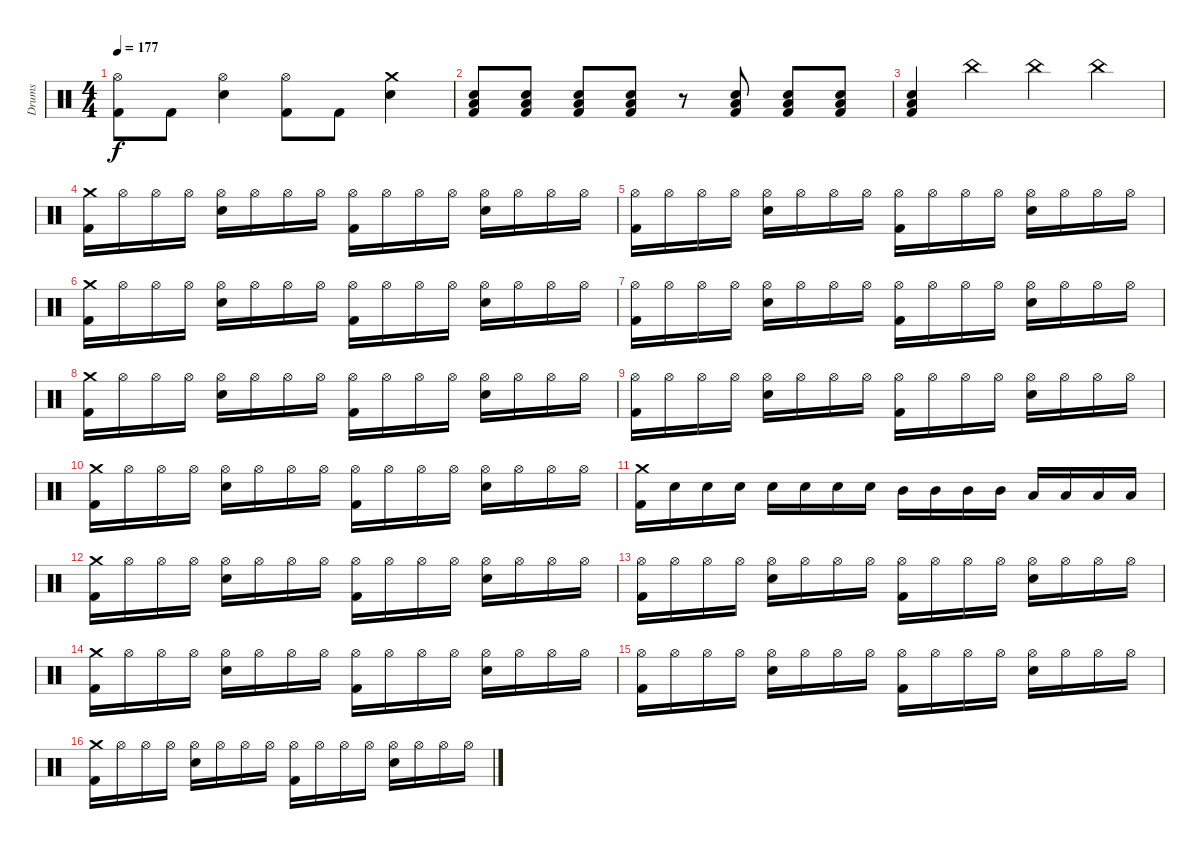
\track ("Drums" "Drums") {solo instrument percussion}
\staff {score}
\articulation defaults
\ts (4 4)
\tempo 177
\clef neutral
\ks c
("Hi-Hat (open)" "Kick (hit) 2").8{dy f} "Kick (hit) 2".8 ("Hi-Hat (open)" "Snare (hit) 2").4 ("Hi-Hat (open)" "Kick (hit) 2").8 "Kick (hit) 2".8 ("Crash medium (hit)" "Snare (hit) 2").4 |
("Low Floor Tom (hit)" "Snare (hit) 2" "Kick (hit) 2").8 ("Low Floor Tom (hit)" "Snare (hit) 2" "Kick (hit) 2").8 ("Low Floor Tom (hit)" "Snare (hit) 2" "Kick (hit) 2").8 ("Low Floor Tom (hit)" "Snare (hit) 2" "Kick (hit) 2").8 r.8 ("Low Floor Tom (hit)" "Snare (hit) 2" "Kick (hit) 2").8 ("Low Floor Tom (hit)" "Snare (hit) 2" "Kick (hit) 2").8 ("Low Floor Tom (hit)" "Snare (hit) 2" "Kick (hit) 2").8 |
("Low Floor Tom (hit)" "Snare (hit) 2" "Kick (hit) 2").4 "China (hit)".4 "China (hit)".4 "China (hit)".4 |
("Crash medium (hit)" "Kick (hit) 2").16 "Hi-Hat (open)".16 "Hi-Hat (open)".16 "Hi-Hat (open)".16 ("Hi-Hat (open)" "Snare (hit) 2").16 "Hi-Hat (open)".16 "Hi-Hat (open)".16 "Hi-Hat (open)".16 ("Hi-Hat (open)" "Kick (hit) 2").16 "Hi-Hat (open)".16 "Hi-Hat (open)".16 "Hi-Hat (open)".16 ("Hi-Hat (open)" "Snare (hit) 2").16 "Hi-Hat (open)".16 "Hi-Hat (open)".16 "Hi-Hat (open)".16 |
("Hi-Hat (open)" "Kick (hit) 2").16 "Hi-Hat (open)".16 "Hi-Hat (open)".16 "Hi-Hat (open)".16 ("Hi-Hat (open)" "Snare (hit) 2").16 "Hi-Hat (open)".16 "Hi-Hat (open)".16 "Hi-Hat (open)".16 ("Hi-Hat (open)" "Kick (hit) 2").16 "Hi-Hat (open)".16 "Hi-Hat (open)".16 "Hi-Hat (open)".16 ("Hi-Hat (open)" "Snare (hit) 2").16 "Hi-Hat (open)".16 "Hi-Hat (open)".16 "Hi-Hat (open)".16 |
("Crash medium (hit)" "Kick (hit) 2").16 "Hi-Hat (open)".16 "Hi-Hat (open)".16 "Hi-Hat (open)".16 ("Hi-Hat (open)" "Snare (hit) 2").16 "Hi-Hat (open)".16 "Hi-Hat (open)".16 "Hi-Hat (open)".16 ("Hi-Hat (open)" "Kick (hit) 2").16 "Hi-Hat (open)".16 "Hi-Hat (open)".16 "Hi-Hat (open)".16 ("Hi-Hat (open)" "Snare (hit) 2").16 "Hi-Hat (open)".16 "Hi-Hat (open)".16 "Hi-Hat (open)".16 |
("Hi-Hat (open)" "Kick (hit) 2").16 "Hi-Hat (open)".16 "Hi-Hat (open)".16 "Hi-Hat (open)".16 ("Hi-Hat (open)" "Snare (hit) 2").16 "Hi-Hat (open)".16 "Hi-Hat (open)".16 "Hi-Hat (open)".16 ("Hi-Hat (open)" "Kick (hit) 2").16 "Hi-Hat (open)".16 "Hi-Hat (open)".16 "Hi-Hat (open)".16 ("Hi-Hat (open)" "Snare (hit) 2").16 "Hi-Hat (open)".16 "Hi-Hat (open)".16 "Hi-Hat (open)".16 |
("Crash medium (hit)" "Kick (hit) 2").16 "Hi-Hat (open)".16 "Hi-Hat (open)".16 "Hi-Hat (open)".16 ("Hi-Hat (open)" "Snare (hit) 2").16 "Hi-Hat (open)".16 "Hi-Hat (open)".16 "Hi-Hat (open)".16 ("Hi-Hat (open)" "Kick (hit) 2").16 "Hi-Hat (open)".16 "Hi-Hat (open)".16 "Hi-Hat (open)".16 ("Hi-Hat (open)" "Snare (hit) 2").16 "Hi-Hat (open)".16 "Hi-Hat (open)".16 "Hi-Hat (open)".16 |
("Hi-Hat (open)" "Kick (hit) 2").16 "Hi-Hat (open)".16 "Hi-Hat (open)".16 "Hi-Hat (open)".16 ("Hi-Hat (open)" "Snare (hit) 2").16 "Hi-Hat (open)".16 "Hi-Hat (open)".16 "Hi-Hat (open)".16 ("Hi-Hat (open)" "Kick (hit) 2").16 "Hi-Hat (open)".16 "Hi-Hat (open)".16 "Hi-Hat (open)".16 ("Hi-Hat (open)" "Snare (hit) 2").16 "Hi-Hat (open)".16 "Hi-Hat (open)".16 "Hi-Hat (open)".16 |
("Crash medium (hit)" "Kick (hit) 2").16 "Hi-Hat (open)".16 "Hi-Hat (open)".16 "Hi-Hat (open)".16 ("Hi-Hat (open)" "Snare (hit) 2").16 "Hi-Hat (open)".16 "Hi-Hat (open)".16 "Hi-Hat (open)".16 ("Hi-Hat (open)" "Kick (hit) 2").16 "Hi-Hat (open)".16 "Hi-Hat (open)".16 "Hi-Hat (open)".16 ("Hi-Hat (open)" "Snare (hit) 2").16 "Hi-Hat (open)".16 "Hi-Hat (open)".16 "Hi-Hat (open)".16 |
("Crash medium (hit)" "Kick (hit) 2").16 "Snare (hit) 2".16 "Snare (hit) 2".16 "Snare (hit) 2".16 "Snare (hit) 2".16 "Snare (hit) 2".16 "Snare (hit) 2".16 "Snare (hit) 2".16 "Mid Tom (hit)".16 "Mid Tom (hit)".16 "Mid Tom (hit)".16 "Mid Tom (hit)".16 "Low Tom (hit)".16 "Low Tom (hit)".16 "Low Tom (hit)".16 "Low Tom (hit)".16 |
("Crash medium (hit)" "Kick (hit) 2").16 "Hi-Hat (open)".16 "Hi-Hat (open)".16 "Hi-Hat (open)".16 ("Hi-Hat (open)" "Snare (hit) 2").16 "Hi-Hat (open)".16 "Hi-Hat (open)".16 "Hi-Hat (open)".16 ("Hi-Hat (open)" "Kick (hit) 2").16 "Hi-Hat (open)".16 "Hi-Hat (open)".16 "Hi-Hat (open)".16 ("Hi-Hat (open)" "Snare (hit) 2").16 "Hi-Hat (open)".16 "Hi-Hat (open)".16 "Hi-Hat (open)".16 |
("Hi-Hat (open)" "Kick (hit) 2").16 "Hi-Hat (open)".16 "Hi-Hat (open)".16 "Hi-Hat (open)".16 ("Hi-Hat (open)" "Snare (hit) 2").16 "Hi-Hat (open)".16 "Hi-Hat (open)".16 "Hi-Hat (open)".16 ("Hi-Hat (open)" "Kick (hit) 2").16 "Hi-Hat (open)".16 "Hi-Hat (open)".16 "Hi-Hat (open)".16 ("Hi-Hat (open)" "Snare (hit) 2").16 "Hi-Hat (open)".16 "Hi-Hat (open)".16 "Hi-Hat (open)".16 |
("Crash medium (hit)" "Kick (hit) 2").16 "Hi-Hat (open)".16 "Hi-Hat (open)".16 "Hi-Hat (open)".16 ("Hi-Hat (open)" "Snare (hit) 2").16 "Hi-Hat (open)".16 "Hi-Hat (open)".16 "Hi-Hat (open)".16 ("Hi-Hat (open)" "Kick (hit) 2").16 "Hi-Hat (open)".16 "Hi-Hat (open)".16 "Hi-Hat (open)".16 ("Hi-Hat (open)" "Snare (hit) 2").16 "Hi-Hat (open)".16 "Hi-Hat (open)".16 "Hi-Hat (open)".16 |
("Hi-Hat (open)" "Kick (hit) 2").16 "Hi-Hat (open)".16 "Hi-Hat (open)".16 "Hi-Hat (open)".16 ("Hi-Hat (open)" "Snare (hit) 2").16 "Hi-Hat (open)".16 "Hi-Hat (open)".16 "Hi-Hat (open)".16 ("Hi-Hat (open)" "Kick (hit) 2").16 "Hi-Hat (open)".16 "Hi-Hat (open)".16 "Hi-Hat (open)".16 ("Hi-Hat (open)" "Snare (hit) 2").16 "Hi-Hat (open)".16 "Hi-Hat (open)".16 "Hi-Hat (open)".16 |
("Crash medium (hit)" "Kick (hit) 2").16 "Hi-Hat (open)".16 "Hi-Hat (open)".16 "Hi-Hat (open)".16 ("Hi-Hat (open)" "Snare (hit) 2").16 "Hi-Hat (open)".16 "Hi-Hat (open)".16 "Hi-Hat (open)".16 ("Hi-Hat (open)" "Kick (hit) 2").16 "Hi-Hat (open)".16 "Hi-Hat (open)".16 "Hi-Hat (open)".16 ("Hi-Hat (open)" "Snare (hit) 2").16 "Hi-Hat (open)".16 "Hi-Hat (open)".16 "Hi-Hat (open)".16
